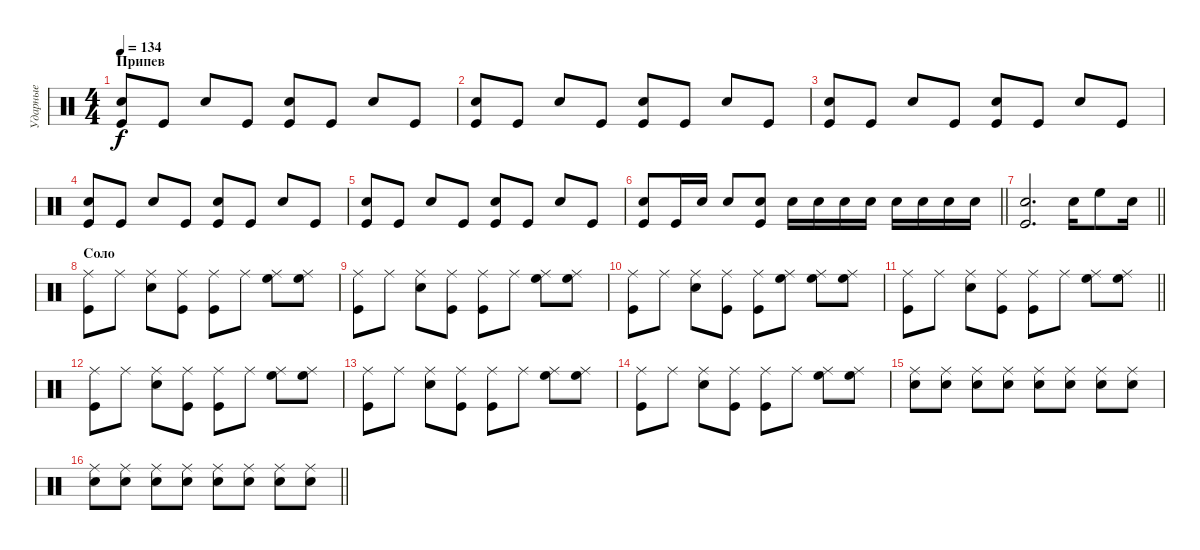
\track ("Ударные" "Ударные") {instrument percussion}
\staff {score}
\articulation defaults
\ts (4 4)
\section ("" "Припев")
\tempo 134
\clef neutral
\ks c
("Snare (hit) 2" "Kick (hit)").8{dy f} "Kick (hit)".8 "Snare (hit) 2".8 "Kick (hit)".8 ("Snare (hit) 2" "Kick (hit)").8 "Kick (hit)".8 "Snare (hit) 2".8 "Kick (hit)".8 |
("Snare (hit) 2" "Kick (hit)").8 "Kick (hit)".8 "Snare (hit) 2".8 "Kick (hit)".8 ("Snare (hit) 2" "Kick (hit)").8 "Kick (hit)".8 "Snare (hit) 2".8 "Kick (hit)".8 |
("Snare (hit) 2" "Kick (hit)").8 "Kick (hit)".8 "Snare (hit) 2".8 "Kick (hit)".8 ("Snare (hit) 2" "Kick (hit)").8 "Kick (hit)".8 "Snare (hit) 2".8 "Kick (hit)".8 |
("Snare (hit) 2" "Kick (hit)").8 "Kick (hit)".8 "Snare (hit) 2".8 "Kick (hit)".8 ("Snare (hit) 2" "Kick (hit)").8 "Kick (hit)".8 "Snare (hit) 2".8 "Kick (hit)".8 |
("Snare (hit) 2" "Kick (hit)").8 "Kick (hit)".8 "Snare (hit) 2".8 "Kick (hit)".8 ("Snare (hit) 2" "Kick (hit)").8 "Kick (hit)".8 "Snare (hit) 2".8 "Kick (hit)".8 |
\barLineRight lightlight
("Snare (hit) 2" "Kick (hit)").8 "Kick (hit)".16 "Snare (hit) 2".16 "Snare (hit) 2".8 ("Snare (hit) 2" "Kick (hit)").8 "Snare (hit) 2".16 "Snare (hit) 2".16 "Snare (hit) 2".16 "Snare (hit) 2".16 "Snare (hit) 2".16 "Snare (hit) 2".16 "Snare (hit) 2".16 "Snare (hit) 2".16 |
\barLineRight lightlight
("Kick (hit)" "Snare (hit) 2").2{d} "Snare (hit) 2".16 "High Floor Tom (hit)".8 "Snare (hit) 2".16 |
\section ("" "Соло")
("Ride (middle)" "Kick (hit)").8 "Ride (middle)".8 ("Ride (middle)" "Snare (hit) 2").8 ("Ride (middle)" "Kick (hit)").8 ("Ride (middle)" "Kick (hit)").8 "Ride (middle)".8 ("Ride (middle)" "High Floor Tom (hit)").8 ("Ride (middle)" "High Floor Tom (hit)").8 |
("Ride (middle)" "Kick (hit)").8 "Ride (middle)".8 ("Ride (middle)" "Snare (hit) 2").8 ("Ride (middle)" "Kick (hit)").8 ("Ride (middle)" "Kick (hit)").8 "Ride (middle)".8 ("Ride (middle)" "High Floor Tom (hit)").8 ("Ride (middle)" "High Floor Tom (hit)").8 |
("Ride (middle)" "Kick (hit)").8 "Ride (middle)".8 ("Ride (middle)" "Snare (hit) 2").8 ("Ride (middle)" "Kick (hit)").8 ("Ride (middle)" "Kick (hit)").8 ("Ride (middle)" "High Floor Tom (hit)").8 ("Ride (middle)" "High Floor Tom (hit)").8 ("Ride (middle)" "High Floor Tom (hit)").8 |
\barLineRight lightlight
("Ride (middle)" "Kick (hit)").8 "Ride (middle)".8 ("Ride (middle)" "Snare (hit) 2").8 ("Ride (middle)" "Kick (hit)").8 ("Ride (middle)" "Kick (hit)").8 "Ride (middle)".8 ("Ride (middle)" "High Floor Tom (hit)").8 ("Ride (middle)" "High Floor Tom (hit)").8 |
("Ride (middle)" "Kick (hit)").8 "Ride (middle)".8 ("Ride (middle)" "Snare (hit) 2").8 ("Ride (middle)" "Kick (hit)").8 ("Ride (middle)" "Kick (hit)").8 "Ride (middle)".8 ("Ride (middle)" "High Floor Tom (hit)").8 ("Ride (middle)" "High Floor Tom (hit)").8 |
("Ride (middle)" "Kick (hit)").8 "Ride (middle)".8 ("Ride (middle)" "Snare (hit) 2").8 ("Ride (middle)" "Kick (hit)").8 ("Ride (middle)" "Kick (hit)").8 "Ride (middle)".8 ("Ride (middle)" "High Floor Tom (hit)").8 ("Ride (middle)" "High Floor Tom (hit)").8 |
("Ride (middle)" "Kick (hit)").8 "Ride (middle)".8 ("Ride (middle)" "Snare (hit) 2").8 ("Ride (middle)" "Kick (hit)").8 ("Ride (middle)" "Kick (hit)").8 "Ride (middle)".8 ("Ride (middle)" "High Floor Tom (hit)").8 ("Ride (middle)" "High Floor Tom (hit)").8 |
("Ride (middle)" "Snare (hit) 2").8 ("Ride (middle)" "Snare (hit) 2").8 ("Ride (middle)" "Snare (hit) 2").8 ("Ride (middle)" "Snare (hit) 2").8 ("Ride (middle)" "Snare (hit) 2").8 ("Ride (middle)" "Snare (hit) 2").8 ("Ride (middle)" "Snare (hit) 2").8 ("Ride (middle)" "Snare (hit) 2").8 |
\barLineRight lightlight
("Ride (middle)" "Snare (hit) 2").8 ("Ride (middle)" "Snare (hit) 2").8 ("Ride (middle)" "Snare (hit) 2").8 ("Ride (middle)" "Snare (hit) 2").8 ("Ride (middle)" "Snare (hit) 2").8 ("Ride (middle)" "Snare (hit) 2").8 ("Ride (middle)" "Snare (hit) 2").8 ("Ride (middle)" "Snare (hit) 2").8
